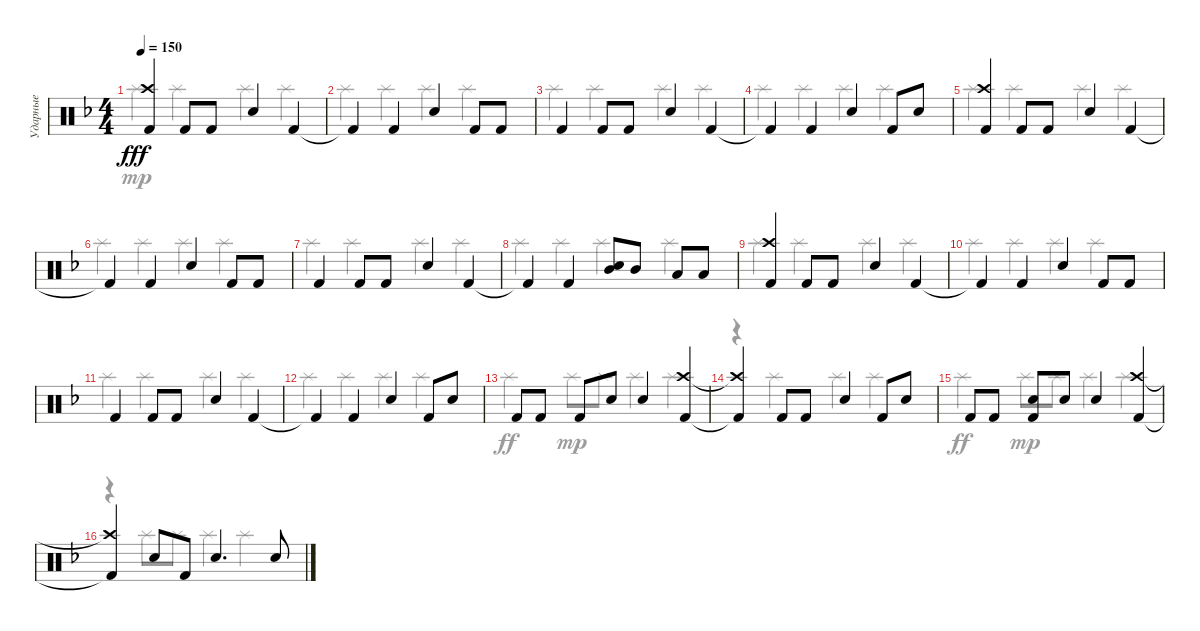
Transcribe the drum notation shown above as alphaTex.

\track ("Ударные" "Ударные") {instrument percussion}
\staff {score}
\articulation defaults
\voice
\ts (4 4)
\tempo 150
\clef neutral
\ks dminor
("Crash high (hit)" "Kick (hit) 2").4{dy fff} "Kick (hit) 2".8 "Kick (hit) 2".8 "Snare (hit) 2".4 "Kick (hit) 2".4 |
"Kick (hit) 2"{t}.4 "Kick (hit) 2".4 "Snare (hit) 2".4 "Kick (hit) 2".8 "Kick (hit) 2".8 |
"Kick (hit) 2".4 "Kick (hit) 2".8 "Kick (hit) 2".8 "Snare (hit) 2".4 "Kick (hit) 2".4 |
"Kick (hit) 2"{t}.4 "Kick (hit) 2".4 "Snare (hit) 2".4 "Kick (hit) 2".8 "Snare (hit) 2".8 |
("Crash high (hit)" "Kick (hit) 2").4 "Kick (hit) 2".8 "Kick (hit) 2".8 "Snare (hit) 2".4 "Kick (hit) 2".4 |
"Kick (hit) 2"{t}.4 "Kick (hit) 2".4 "Snare (hit) 2".4 "Kick (hit) 2".8 "Kick (hit) 2".8 |
"Kick (hit) 2".4 "Kick (hit) 2".8 "Kick (hit) 2".8 "Snare (hit) 2".4 "Kick (hit) 2".4 |
"Kick (hit) 2"{t}.4 "Kick (hit) 2".4 ("Snare (hit) 2" "Mid Tom (hit)").8 "Mid Tom (hit)".8 "Low Tom (hit)".8 "Low Tom (hit)".8 |
("Crash high (hit)" "Kick (hit) 2").4 "Kick (hit) 2".8 "Kick (hit) 2".8 "Snare (hit) 2".4 "Kick (hit) 2".4 |
"Kick (hit) 2"{t}.4 "Kick (hit) 2".4 "Snare (hit) 2".4 "Kick (hit) 2".8 "Kick (hit) 2".8 |
"Kick (hit) 2".4 "Kick (hit) 2".8 "Kick (hit) 2".8 "Snare (hit) 2".4 "Kick (hit) 2".4 |
"Kick (hit) 2"{t}.4 "Kick (hit) 2".4 "Snare (hit) 2".4 "Kick (hit) 2".8 "Snare (hit) 2".8 |
"Kick (hit) 2".8 "Kick (hit) 2".8 "Kick (hit) 2".8 "Snare (hit) 2".8 "Snare (hit) 2".4 ("Kick (hit) 2" "Crash high (hit)").4 |
("Kick (hit) 2"{t} "Crash high (hit)"{t}).4 "Kick (hit) 2".8 "Kick (hit) 2".8 "Snare (hit) 2".4 "Kick (hit) 2".8 "Snare (hit) 2".8 |
"Kick (hit) 2".8 "Kick (hit) 2".8 ("Snare (hit) 2" "Kick (hit) 2").8 "Snare (hit) 2".8 "Snare (hit) 2".4 ("Kick (hit) 2" "Crash high (hit)").4 |
("Kick (hit) 2"{t} "Crash high (hit)"{t}).4 "Snare (hit) 2".8 "Kick (hit) 2".8 "Snare (hit) 2".4{d} "Snare (hit) 2".8
\voice
\clef neutral
\ottava regular
\simile none
\ks dminor "Splash (hit)".4{dy mp} "Splash (hit)".4 "Splash (hit)".4 "Splash (hit)".4
|
"Splash (hit)".4 "Splash (hit)".4 "Splash (hit)".4 "Splash (hit)".4 |
"Splash (hit)".4 "Splash (hit)".4 "Splash (hit)".4 "Splash (hit)".4 |
"Splash (hit)".4 "Splash (hit)".4 "Splash (hit)".4 "Splash (hit)".4 |
"Splash (hit)".4 "Splash (hit)".4 "Splash (hit)".4 "Splash (hit)".4 |
"Splash (hit)".4 "Splash (hit)".4 "Splash (hit)".4 "Splash (hit)".4 |
"Splash (hit)".4 "Splash (hit)".4 "Splash (hit)".4 "Splash (hit)".4 |
"Splash (hit)".4 "Splash (hit)".4 "Splash (hit)".4 "Splash (hit)".4 |
"Splash (hit)".4 "Splash (hit)".4 "Splash (hit)".4 "Splash (hit)".4 |
"Splash (hit)".4 "Splash (hit)".4 "Splash (hit)".4 "Splash (hit)".4 |
"Splash (hit)".4 "Splash (hit)".4 "Splash (hit)".4 "Splash (hit)".4 |
"Splash (hit)".4 "Splash (hit)".4 "Splash (hit)".4 "Splash (hit)".4 |
"Splash (hit)".4{dy ff} "Splash (hit)".8{dy mp} "Splash (hit)".8 "Splash (hit)".4 "Splash (hit)".4 |
r.4 "Splash (hit)".4 "Splash (hit)".4 "Splash (hit)".4 |
"Splash (hit)".4{dy ff} "Splash (hit)".8{dy mp} "Splash (hit)".8 "Splash (hit)".4 "Splash (hit)".4 |
r.4 "Splash (hit)".8 "Splash (hit)".8 "Splash (hit)".4 "Splash (hit)".4
